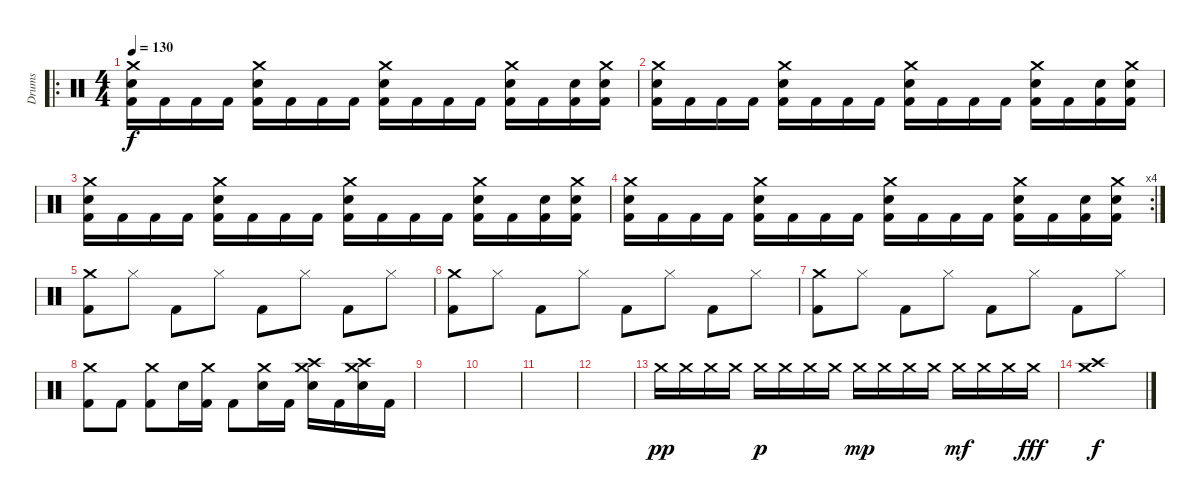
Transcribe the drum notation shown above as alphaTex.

\track ("Drums" "Drums") {instrument percussion}
\staff {score}
\articulation defaults
\ro
\ts (4 4)
\tempo 130
\clef neutral
\ks c
("Crash medium (hit)" "Kick (hit) 2" "Electric Snare (hit)").16{dy f volume 16} "Kick (hit) 2".16 "Kick (hit) 2".16 "Kick (hit) 2".16 ("Crash medium (hit)" "Kick (hit) 2" "Electric Snare (hit)").16 "Kick (hit) 2".16 "Kick (hit) 2".16 "Kick (hit) 2".16 ("Crash medium (hit)" "Kick (hit) 2" "Electric Snare (hit)").16 "Kick (hit) 2".16 "Kick (hit) 2".16 "Kick (hit) 2".16 ("Crash medium (hit)" "Kick (hit) 2" "Electric Snare (hit)").16 "Kick (hit) 2".16 ("Kick (hit) 2" "Electric Snare (hit)").16 ("Crash medium (hit)" "Kick (hit) 2" "Electric Snare (hit)").16 |
("Crash medium (hit)" "Kick (hit) 2" "Electric Snare (hit)").16 "Kick (hit) 2".16 "Kick (hit) 2".16 "Kick (hit) 2".16 ("Crash medium (hit)" "Kick (hit) 2" "Electric Snare (hit)").16 "Kick (hit) 2".16 "Kick (hit) 2".16 "Kick (hit) 2".16 ("Crash medium (hit)" "Kick (hit) 2" "Electric Snare (hit)").16 "Kick (hit) 2".16 "Kick (hit) 2".16 "Kick (hit) 2".16 ("Crash medium (hit)" "Kick (hit) 2" "Electric Snare (hit)").16 "Kick (hit) 2".16 ("Kick (hit) 2" "Electric Snare (hit)").16 ("Crash medium (hit)" "Kick (hit) 2" "Electric Snare (hit)").16 |
("Crash medium (hit)" "Kick (hit) 2" "Electric Snare (hit)").16 "Kick (hit) 2".16 "Kick (hit) 2".16 "Kick (hit) 2".16 ("Crash medium (hit)" "Kick (hit) 2" "Electric Snare (hit)").16 "Kick (hit) 2".16 "Kick (hit) 2".16 "Kick (hit) 2".16 ("Crash medium (hit)" "Kick (hit) 2" "Electric Snare (hit)").16 "Kick (hit) 2".16 "Kick (hit) 2".16 "Kick (hit) 2".16 ("Crash medium (hit)" "Kick (hit) 2" "Electric Snare (hit)").16 "Kick (hit) 2".16 ("Kick (hit) 2" "Electric Snare (hit)").16 ("Crash medium (hit)" "Kick (hit) 2" "Electric Snare (hit)").16 |
\rc 4
("Crash medium (hit)" "Kick (hit) 2" "Electric Snare (hit)").16 "Kick (hit) 2".16 "Kick (hit) 2".16 "Kick (hit) 2".16 ("Crash medium (hit)" "Kick (hit) 2" "Electric Snare (hit)").16 "Kick (hit) 2".16 "Kick (hit) 2".16 "Kick (hit) 2".16 ("Crash medium (hit)" "Kick (hit) 2" "Electric Snare (hit)").16 "Kick (hit) 2".16 "Kick (hit) 2".16 "Kick (hit) 2".16 ("Crash medium (hit)" "Kick (hit) 2" "Electric Snare (hit)").16 "Kick (hit) 2".16 ("Kick (hit) 2" "Electric Snare (hit)").16 ("Crash medium (hit)" "Kick (hit) 2" "Electric Snare (hit)").16 |
("Crash medium (hit)" "Kick (hit) 2").8 "Hi-Hat (closed)".8 "Kick (hit) 2".8 "Hi-Hat (closed)".8 "Kick (hit) 2".8 "Hi-Hat (closed)".8 "Kick (hit) 2".8 "Hi-Hat (closed)".8 |
("Crash medium (hit)" "Kick (hit) 2").8 "Hi-Hat (closed)".8 "Kick (hit) 2".8 "Hi-Hat (closed)".8 "Kick (hit) 2".8 "Hi-Hat (closed)".8 "Kick (hit) 2".8 "Hi-Hat (closed)".8 |
("Crash medium (hit)" "Kick (hit) 2").8 "Hi-Hat (closed)".8 "Kick (hit) 2".8 "Hi-Hat (closed)".8 "Kick (hit) 2".8 "Hi-Hat (closed)".8 "Kick (hit) 2".8 "Hi-Hat (closed)".8 |
("Crash medium (hit)" "Kick (hit) 2").8 "Kick (hit) 2".8 ("Crash medium (hit)" "Kick (hit) 2").8 "Electric Snare (hit)".16 ("Crash medium (hit)" "Kick (hit) 2").16 "Kick (hit) 2".8 ("Crash medium (hit)" "Electric Snare (hit)").16 "Kick (hit) 2".16 ("Crash medium (hit)" "Crash high (hit)" "Electric Snare (hit)").16 "Kick (hit) 2".16 ("Crash medium (hit)" "Crash high (hit)" "Electric Snare (hit)").16 "Kick (hit) 2".16 |
|
|
|
|
"Crash medium (hit)".16{dy pp} "Crash medium (hit)".16 "Crash medium (hit)".16 "Crash medium (hit)".16 "Crash medium (hit)".16{dy p} "Crash medium (hit)".16 "Crash medium (hit)".16 "Crash medium (hit)".16 "Crash medium (hit)".16{dy mp} "Crash medium (hit)".16 "Crash medium (hit)".16 "Crash medium (hit)".16 "Crash medium (hit)".16{dy mf} "Crash medium (hit)".16 "Crash medium (hit)".16 "Crash medium (hit)".16{dy fff} |
("Crash medium (hit)" "Crash high (hit)").1{dy f}
